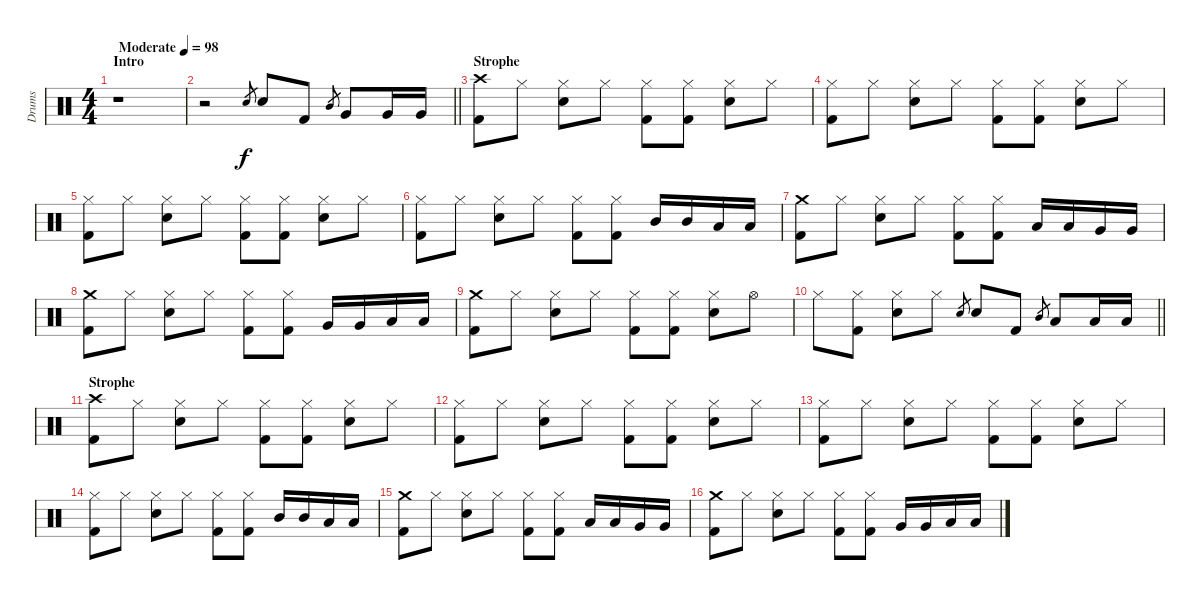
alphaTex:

\track ("Drums" "Drums") {instrument percussion}
\staff {score}
\articulation defaults
\ts (4 4)
\section ("" "Intro")
\tempo (98 "Moderate")
\clef neutral
\ks c
r.1{dy f} |
\barLineRight lightlight
r.2 "Snare (hit) 2".8{gr} "Snare (hit) 2".8 "Kick (hit) 2".8 "Mid Tom (hit)".8{gr} "Very Low Tom (hit)".8 "Very Low Tom (hit)".16 "Very Low Tom (hit)".16 |
\section ("" "Strophe")
("Crash high (hit)" "Kick (hit) 2").8 "Hi-Hat (closed)".8 ("Hi-Hat (closed)" "Snare (hit) 2").8 "Hi-Hat (closed)".8 ("Hi-Hat (closed)" "Kick (hit) 2").8 ("Hi-Hat (closed)" "Kick (hit) 2").8 ("Hi-Hat (closed)" "Snare (hit) 2").8 "Hi-Hat (closed)".8 |
("Hi-Hat (closed)" "Kick (hit) 2").8 "Hi-Hat (closed)".8 ("Hi-Hat (closed)" "Snare (hit) 2").8 "Hi-Hat (closed)".8 ("Hi-Hat (closed)" "Kick (hit) 2").8 ("Hi-Hat (closed)" "Kick (hit) 2").8 ("Hi-Hat (closed)" "Snare (hit) 2").8 "Hi-Hat (closed)".8 |
("Hi-Hat (closed)" "Kick (hit) 2").8 "Hi-Hat (closed)".8 ("Hi-Hat (closed)" "Snare (hit) 2").8 "Hi-Hat (closed)".8 ("Hi-Hat (closed)" "Kick (hit) 2").8 ("Hi-Hat (closed)" "Kick (hit) 2").8 ("Hi-Hat (closed)" "Snare (hit) 2").8 "Hi-Hat (closed)".8 |
("Hi-Hat (closed)" "Kick (hit) 2").8 "Hi-Hat (closed)".8 ("Hi-Hat (closed)" "Snare (hit) 2").8 "Hi-Hat (closed)".8 ("Hi-Hat (closed)" "Kick (hit) 2").8 ("Hi-Hat (closed)" "Kick (hit) 2").8 "Mid Tom (hit)".16 "Mid Tom (hit)".16 "Low Tom (hit)".16 "Low Tom (hit)".16 |
("Crash medium (hit)" "Kick (hit) 2").8 "Hi-Hat (closed)".8 ("Hi-Hat (closed)" "Snare (hit) 2").8 "Hi-Hat (closed)".8 ("Hi-Hat (closed)" "Kick (hit) 2").8 ("Hi-Hat (closed)" "Kick (hit) 2").8 "Low Tom (hit)".16 "Low Tom (hit)".16 "Very Low Tom (hit)".16 "Very Low Tom (hit)".16 |
("Crash medium (hit)" "Kick (hit) 2").8 "Hi-Hat (closed)".8 ("Hi-Hat (closed)" "Snare (hit) 2").8 "Hi-Hat (closed)".8 ("Hi-Hat (closed)" "Kick (hit) 2").8 ("Hi-Hat (closed)" "Kick (hit) 2").8 "Very Low Tom (hit)".16 "Very Low Tom (hit)".16 "Low Floor Tom (hit)".16 "Low Floor Tom (hit)".16 |
("Crash medium (hit)" "Kick (hit) 2").8 "Hi-Hat (closed)".8 ("Hi-Hat (closed)" "Snare (hit) 2").8 "Hi-Hat (closed)".8 ("Hi-Hat (closed)" "Kick (hit) 2").8 ("Hi-Hat (closed)" "Kick (hit) 2").8 ("Hi-Hat (closed)" "Snare (hit) 2").8 "Hi-Hat (open)".8 |
\barLineRight lightlight "Hi-Hat (closed)".8
("Hi-Hat (closed)" "Kick (hit) 2").8 ("Hi-Hat (closed)" "Snare (hit) 2").8 "Hi-Hat (closed)".8 "Snare (hit) 2".8{gr} "Snare (hit) 2".8 "Kick (hit) 2".8 "Mid Tom (hit)".8{gr} "Low Tom (hit)".8 "Low Tom (hit)".16 "Low Tom (hit)".16 |
\section ("" "Strophe")
("Crash high (hit)" "Kick (hit) 2").8 "Hi-Hat (closed)".8 ("Hi-Hat (closed)" "Snare (hit) 2").8 "Hi-Hat (closed)".8 ("Hi-Hat (closed)" "Kick (hit) 2").8 ("Hi-Hat (closed)" "Kick (hit) 2").8 ("Hi-Hat (closed)" "Snare (hit) 2").8 "Hi-Hat (closed)".8 |
("Hi-Hat (closed)" "Kick (hit) 2").8 "Hi-Hat (closed)".8 ("Hi-Hat (closed)" "Snare (hit) 2").8 "Hi-Hat (closed)".8 ("Hi-Hat (closed)" "Kick (hit) 2").8 ("Hi-Hat (closed)" "Kick (hit) 2").8 ("Hi-Hat (closed)" "Snare (hit) 2").8 "Hi-Hat (closed)".8 |
("Hi-Hat (closed)" "Kick (hit) 2").8 "Hi-Hat (closed)".8 ("Hi-Hat (closed)" "Snare (hit) 2").8 "Hi-Hat (closed)".8 ("Hi-Hat (closed)" "Kick (hit) 2").8 ("Hi-Hat (closed)" "Kick (hit) 2").8 ("Hi-Hat (closed)" "Snare (hit) 2").8 "Hi-Hat (closed)".8 |
("Hi-Hat (closed)" "Kick (hit) 2").8 "Hi-Hat (closed)".8 ("Hi-Hat (closed)" "Snare (hit) 2").8 "Hi-Hat (closed)".8 ("Hi-Hat (closed)" "Kick (hit) 2").8 ("Hi-Hat (closed)" "Kick (hit) 2").8 "Mid Tom (hit)".16 "Mid Tom (hit)".16 "Low Tom (hit)".16 "Low Tom (hit)".16 |
("Crash medium (hit)" "Kick (hit) 2").8 "Hi-Hat (closed)".8 ("Hi-Hat (closed)" "Snare (hit) 2").8 "Hi-Hat (closed)".8 ("Hi-Hat (closed)" "Kick (hit) 2").8 ("Hi-Hat (closed)" "Kick (hit) 2").8 "Low Tom (hit)".16 "Low Tom (hit)".16 "Very Low Tom (hit)".16 "Very Low Tom (hit)".16 |
("Crash medium (hit)" "Kick (hit) 2").8 "Hi-Hat (closed)".8 ("Hi-Hat (closed)" "Snare (hit) 2").8 "Hi-Hat (closed)".8 ("Hi-Hat (closed)" "Kick (hit) 2").8 ("Hi-Hat (closed)" "Kick (hit) 2").8 "Very Low Tom (hit)".16 "Very Low Tom (hit)".16 "Low Floor Tom (hit)".16 "Low Floor Tom (hit)".16
